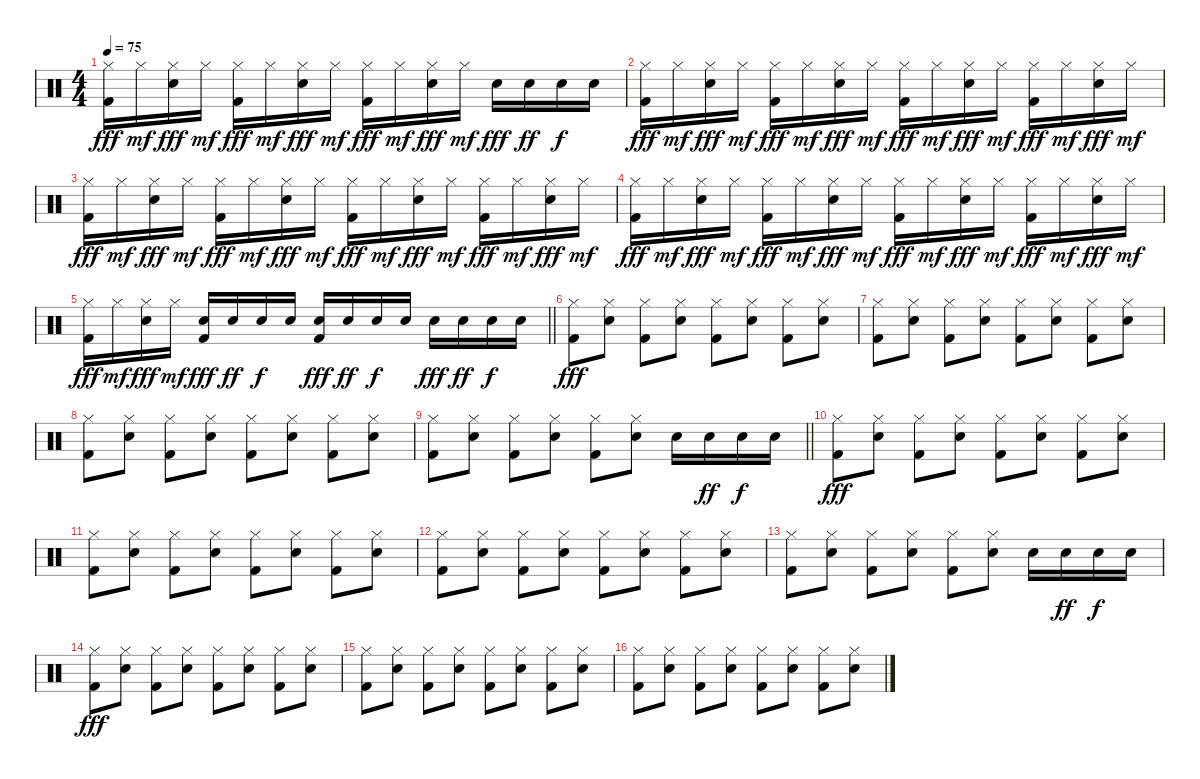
\track "" {instrument percussion}
\staff {score}
\articulation defaults
\ts (4 4)
\tempo 75
\clef neutral
\ks c
("Hi-Hat (closed)" "Kick (hit) 2").16{dy fff} "Hi-Hat (closed)".16{dy mf} ("Hi-Hat (closed)" "Snare (hit) 2").16{dy fff} "Hi-Hat (closed)".16{dy mf} ("Hi-Hat (closed)" "Kick (hit) 2").16{dy fff} "Hi-Hat (closed)".16{dy mf} ("Hi-Hat (closed)" "Snare (hit) 2").16{dy fff} "Hi-Hat (closed)".16{dy mf} ("Hi-Hat (closed)" "Kick (hit) 2").16{dy fff} "Hi-Hat (closed)".16{dy mf} ("Hi-Hat (closed)" "Snare (hit) 2").16{dy fff} "Hi-Hat (closed)".16{dy mf} "Snare (hit) 2".16{dy fff} "Snare (hit) 2".16{dy ff} "Snare (hit) 2".16{dy f} "Snare (hit) 2".16 |
("Hi-Hat (closed)" "Kick (hit) 2").16{dy fff} "Hi-Hat (closed)".16{dy mf} ("Hi-Hat (closed)" "Snare (hit) 2").16{dy fff} "Hi-Hat (closed)".16{dy mf} ("Hi-Hat (closed)" "Kick (hit) 2").16{dy fff} "Hi-Hat (closed)".16{dy mf} ("Hi-Hat (closed)" "Snare (hit) 2").16{dy fff} "Hi-Hat (closed)".16{dy mf} ("Hi-Hat (closed)" "Kick (hit) 2").16{dy fff} "Hi-Hat (closed)".16{dy mf} ("Hi-Hat (closed)" "Snare (hit) 2").16{dy fff} "Hi-Hat (closed)".16{dy mf} ("Hi-Hat (closed)" "Kick (hit) 2").16{dy fff} "Hi-Hat (closed)".16{dy mf} ("Hi-Hat (closed)" "Snare (hit) 2").16{dy fff} "Hi-Hat (closed)".16{dy mf} |
("Hi-Hat (closed)" "Kick (hit) 2").16{dy fff} "Hi-Hat (closed)".16{dy mf} ("Hi-Hat (closed)" "Snare (hit) 2").16{dy fff} "Hi-Hat (closed)".16{dy mf} ("Hi-Hat (closed)" "Kick (hit) 2").16{dy fff} "Hi-Hat (closed)".16{dy mf} ("Hi-Hat (closed)" "Snare (hit) 2").16{dy fff} "Hi-Hat (closed)".16{dy mf} ("Hi-Hat (closed)" "Kick (hit) 2").16{dy fff} "Hi-Hat (closed)".16{dy mf} ("Hi-Hat (closed)" "Snare (hit) 2").16{dy fff} "Hi-Hat (closed)".16{dy mf} ("Hi-Hat (closed)" "Kick (hit) 2").16{dy fff} "Hi-Hat (closed)".16{dy mf} ("Hi-Hat (closed)" "Snare (hit) 2").16{dy fff} "Hi-Hat (closed)".16{dy mf} |
("Hi-Hat (closed)" "Kick (hit) 2").16{dy fff} "Hi-Hat (closed)".16{txt "" dy mf} ("Hi-Hat (closed)" "Snare (hit) 2").16{dy fff} "Hi-Hat (closed)".16{dy mf} ("Hi-Hat (closed)" "Kick (hit) 2").16{dy fff} "Hi-Hat (closed)".16{dy mf} ("Hi-Hat (closed)" "Snare (hit) 2").16{dy fff} "Hi-Hat (closed)".16{dy mf} ("Hi-Hat (closed)" "Kick (hit) 2").16{dy fff} "Hi-Hat (closed)".16{dy mf} ("Hi-Hat (closed)" "Snare (hit) 2").16{dy fff} "Hi-Hat (closed)".16{dy mf} ("Hi-Hat (closed)" "Kick (hit) 2").16{dy fff} "Hi-Hat (closed)".16{dy mf} ("Hi-Hat (closed)" "Snare (hit) 2").16{dy fff} "Hi-Hat (closed)".16{dy mf} |
\barLineRight lightlight
("Hi-Hat (closed)" "Kick (hit) 2").16{dy fff} "Hi-Hat (closed)".16{dy mf} ("Hi-Hat (closed)" "Snare (hit) 2").16{dy fff} "Hi-Hat (closed)".16{dy mf} ("Snare (hit) 2" "Kick (hit) 2").16{dy fff} "Snare (hit) 2".16{dy ff} "Snare (hit) 2".16{dy f} "Snare (hit) 2".16 ("Snare (hit) 2" "Kick (hit) 2").16{dy fff} "Snare (hit) 2".16{dy ff} "Snare (hit) 2".16{dy f} "Snare (hit) 2".16 "Snare (hit) 2".16{dy fff} "Snare (hit) 2".16{dy ff} "Snare (hit) 2".16{dy f} "Snare (hit) 2".16 |
\section ("" "")
("Hi-Hat (closed)" "Kick (hit) 2").8{dy fff} ("Hi-Hat (closed)" "Snare (hit) 2").8 ("Hi-Hat (closed)" "Kick (hit) 2").8 ("Hi-Hat (closed)" "Snare (hit) 2").8 ("Hi-Hat (closed)" "Kick (hit) 2").8 ("Hi-Hat (closed)" "Snare (hit) 2").8 ("Hi-Hat (closed)" "Kick (hit) 2").8 ("Hi-Hat (closed)" "Snare (hit) 2").8 |
("Hi-Hat (closed)" "Kick (hit) 2").8 ("Hi-Hat (closed)" "Snare (hit) 2").8 ("Hi-Hat (closed)" "Kick (hit) 2").8 ("Hi-Hat (closed)" "Snare (hit) 2").8 ("Hi-Hat (closed)" "Kick (hit) 2").8 ("Hi-Hat (closed)" "Snare (hit) 2").8 ("Hi-Hat (closed)" "Kick (hit) 2").8 ("Hi-Hat (closed)" "Snare (hit) 2").8 |
("Hi-Hat (closed)" "Kick (hit) 2").8 ("Hi-Hat (closed)" "Snare (hit) 2").8 ("Hi-Hat (closed)" "Kick (hit) 2").8 ("Hi-Hat (closed)" "Snare (hit) 2").8 ("Hi-Hat (closed)" "Kick (hit) 2").8 ("Hi-Hat (closed)" "Snare (hit) 2").8 ("Hi-Hat (closed)" "Kick (hit) 2").8 ("Hi-Hat (closed)" "Snare (hit) 2").8 |
\barLineRight lightlight
("Hi-Hat (closed)" "Kick (hit) 2").8 ("Hi-Hat (closed)" "Snare (hit) 2").8 ("Hi-Hat (closed)" "Kick (hit) 2").8 ("Hi-Hat (closed)" "Snare (hit) 2").8 ("Hi-Hat (closed)" "Kick (hit) 2").8 ("Hi-Hat (closed)" "Snare (hit) 2").8 "Snare (hit) 2".16 "Snare (hit) 2".16{dy ff} "Snare (hit) 2".16{dy f} "Snare (hit) 2".16 |
("Hi-Hat (closed)" "Kick (hit) 2").8{dy fff} ("Hi-Hat (closed)" "Snare (hit) 2").8 ("Hi-Hat (closed)" "Kick (hit) 2").8 ("Hi-Hat (closed)" "Snare (hit) 2").8 ("Hi-Hat (closed)" "Kick (hit) 2").8 ("Hi-Hat (closed)" "Snare (hit) 2").8 ("Hi-Hat (closed)" "Kick (hit) 2").8 ("Hi-Hat (closed)" "Snare (hit) 2").8 |
("Hi-Hat (closed)" "Kick (hit) 2").8 ("Hi-Hat (closed)" "Snare (hit) 2").8 ("Hi-Hat (closed)" "Kick (hit) 2").8 ("Hi-Hat (closed)" "Snare (hit) 2").8 ("Hi-Hat (closed)" "Kick (hit) 2").8 ("Hi-Hat (closed)" "Snare (hit) 2").8 ("Hi-Hat (closed)" "Kick (hit) 2").8 ("Hi-Hat (closed)" "Snare (hit) 2").8 |
("Hi-Hat (closed)" "Kick (hit) 2").8 ("Hi-Hat (closed)" "Snare (hit) 2").8 ("Hi-Hat (closed)" "Kick (hit) 2").8 ("Hi-Hat (closed)" "Snare (hit) 2").8 ("Hi-Hat (closed)" "Kick (hit) 2").8 ("Hi-Hat (closed)" "Snare (hit) 2").8 ("Hi-Hat (closed)" "Kick (hit) 2").8 ("Hi-Hat (closed)" "Snare (hit) 2").8 |
("Hi-Hat (closed)" "Kick (hit) 2").8 ("Hi-Hat (closed)" "Snare (hit) 2").8 ("Hi-Hat (closed)" "Kick (hit) 2").8 ("Hi-Hat (closed)" "Snare (hit) 2").8 ("Hi-Hat (closed)" "Kick (hit) 2").8 ("Hi-Hat (closed)" "Snare (hit) 2").8 "Snare (hit) 2".16 "Snare (hit) 2".16{dy ff} "Snare (hit) 2".16{dy f} "Snare (hit) 2".16 |
("Hi-Hat (closed)" "Kick (hit) 2").8{dy fff} ("Hi-Hat (closed)" "Snare (hit) 2").8 ("Hi-Hat (closed)" "Kick (hit) 2").8 ("Hi-Hat (closed)" "Snare (hit) 2").8 ("Hi-Hat (closed)" "Kick (hit) 2").8 ("Hi-Hat (closed)" "Snare (hit) 2").8 ("Hi-Hat (closed)" "Kick (hit) 2").8 ("Hi-Hat (closed)" "Snare (hit) 2").8 |
("Hi-Hat (closed)" "Kick (hit) 2").8 ("Hi-Hat (closed)" "Snare (hit) 2").8 ("Hi-Hat (closed)" "Kick (hit) 2").8 ("Hi-Hat (closed)" "Snare (hit) 2").8 ("Hi-Hat (closed)" "Kick (hit) 2").8 ("Hi-Hat (closed)" "Snare (hit) 2").8 ("Hi-Hat (closed)" "Kick (hit) 2").8 ("Hi-Hat (closed)" "Snare (hit) 2").8 |
("Hi-Hat (closed)" "Kick (hit) 2").8 ("Hi-Hat (closed)" "Snare (hit) 2").8 ("Hi-Hat (closed)" "Kick (hit) 2").8 ("Hi-Hat (closed)" "Snare (hit) 2").8 ("Hi-Hat (closed)" "Kick (hit) 2").8 ("Hi-Hat (closed)" "Snare (hit) 2").8 ("Hi-Hat (closed)" "Kick (hit) 2").8 ("Hi-Hat (closed)" "Snare (hit) 2").8
